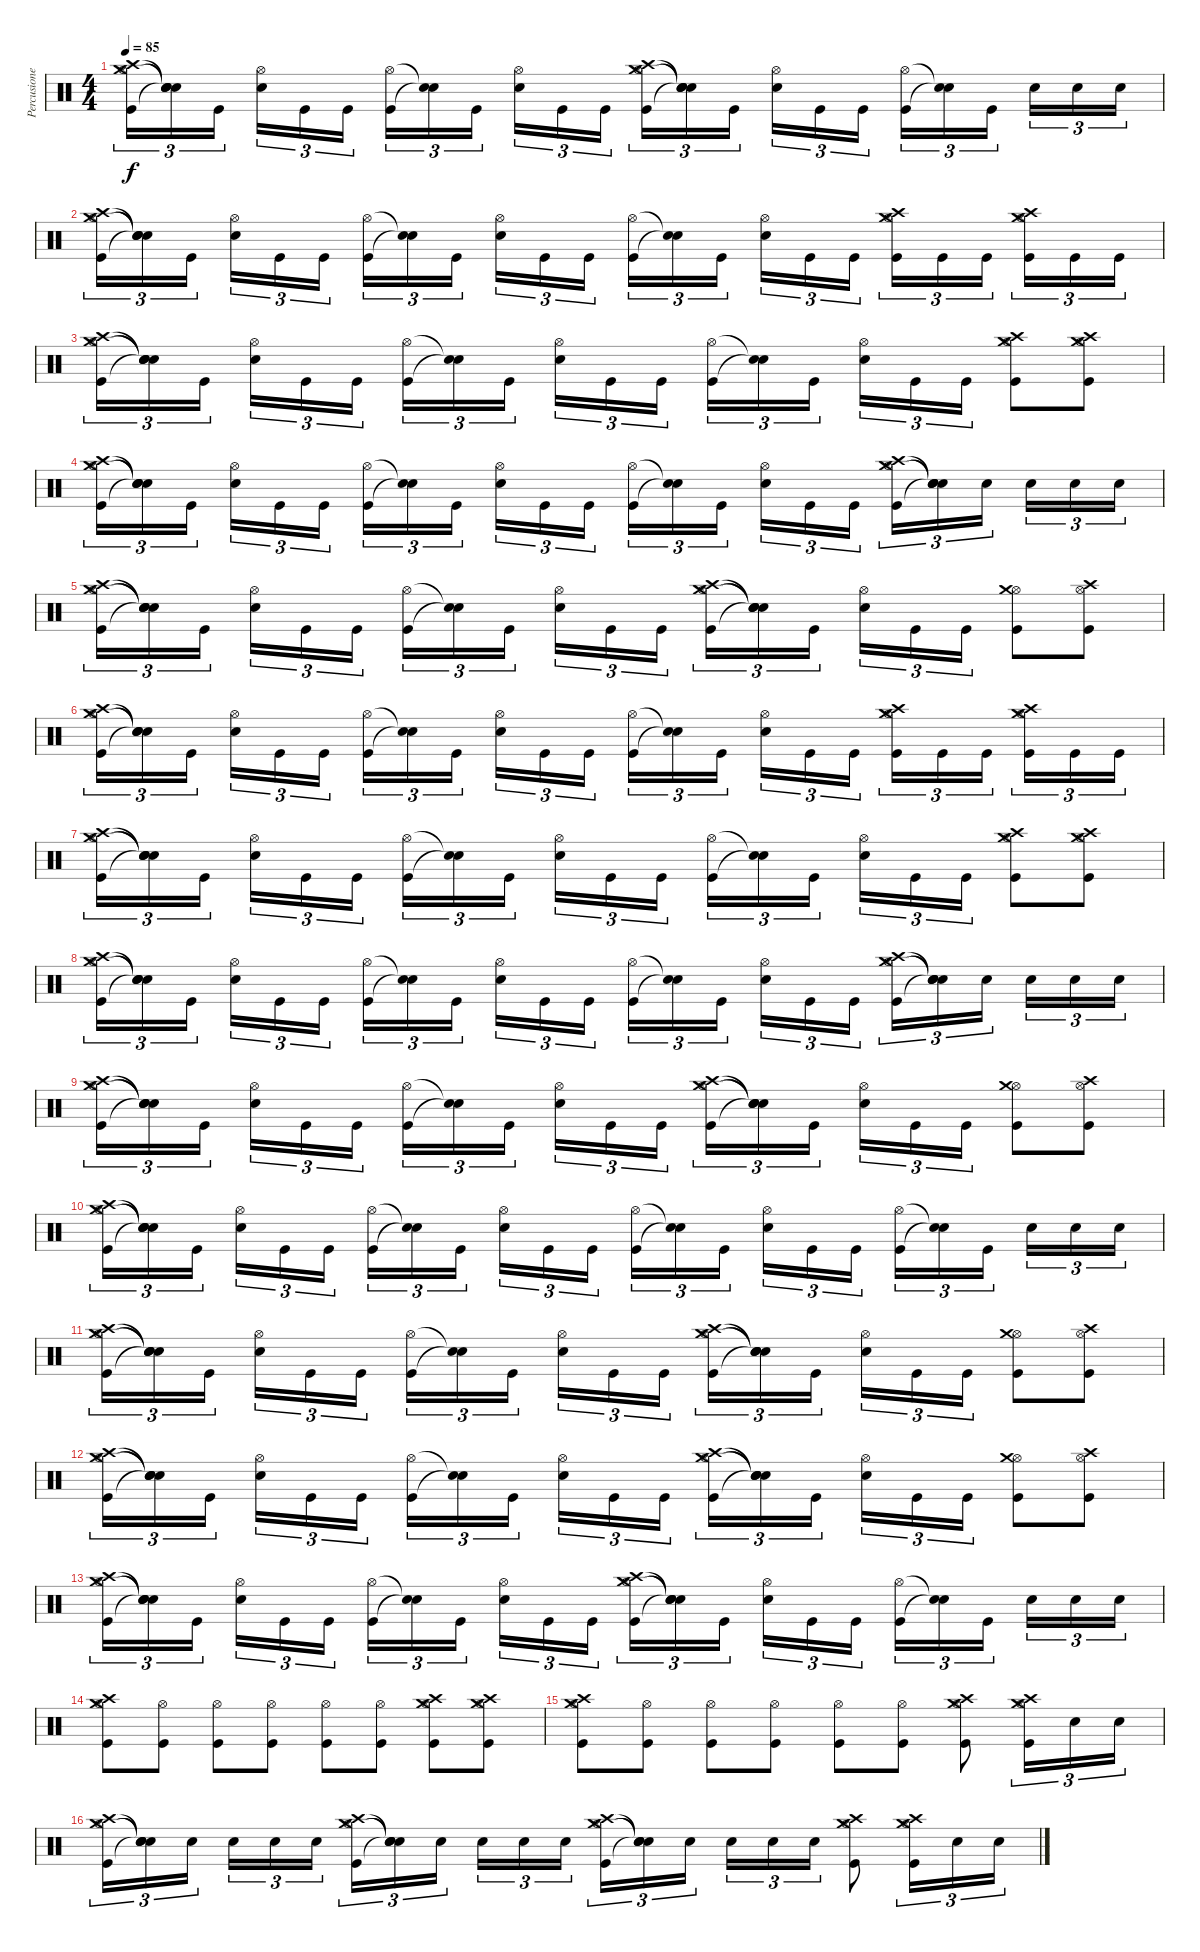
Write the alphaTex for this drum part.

\track ("Percusiones" "Percusione") {instrument percussion}
\staff {score}
\articulation defaults
\ts (4 4)
\tempo 85
\clef neutral
\ks c
("Hi-Hat (open)" "Crash high (hit)" "Crash medium (hit)" "Kick (hit)").16{tu (3 2) dy f} ("Snare (hit)"{t} "Snare (hit)"{t} "Snare (hit)"{t} "Snare (hit)"{t}).16{tu (3 2)} "Kick (hit)".16{tu (3 2)} ("Hi-Hat (open)" "Electric Snare (hit)").16{tu (3 2)} "Kick (hit)".16{tu (3 2)} "Kick (hit)".16{tu (3 2)} ("Hi-Hat (open)" "Kick (hit)").16{tu (3 2)} ("Snare (hit)"{t} "Snare (hit)"{t}).16{tu (3 2)} "Kick (hit)".16{tu (3 2)} ("Hi-Hat (open)" "Electric Snare (hit)").16{tu (3 2)} "Kick (hit)".16{tu (3 2)} "Kick (hit)".16{tu (3 2)} ("Hi-Hat (open)" "Crash high (hit)" "Crash medium (hit)" "Kick (hit)").16{tu (3 2)} ("Snare (hit)"{t} "Snare (hit)"{t} "Snare (hit)"{t} "Snare (hit)"{t}).16{tu (3 2)} "Kick (hit)".16{tu (3 2)} ("Hi-Hat (open)" "Electric Snare (hit)").16{tu (3 2)} "Kick (hit)".16{tu (3 2)} "Kick (hit)".16{tu (3 2)} ("Hi-Hat (open)" "Kick (hit)").16{tu (3 2)} ("Snare (hit)"{t} "Snare (hit)"{t}).16{tu (3 2)} "Kick (hit)".16{tu (3 2)} "Electric Snare (hit)".16{tu (3 2)} "Electric Snare (hit)".16{tu (3 2)} "Electric Snare (hit)".16{tu (3 2)} |
("Hi-Hat (open)" "Crash high (hit)" "Crash medium (hit)" "Kick (hit)").16{tu (3 2)} ("Snare (hit)"{t} "Snare (hit)"{t} "Snare (hit)"{t} "Snare (hit)"{t}).16{tu (3 2)} "Kick (hit)".16{tu (3 2)} ("Hi-Hat (open)" "Electric Snare (hit)").16{tu (3 2)} "Kick (hit)".16{tu (3 2)} "Kick (hit)".16{tu (3 2)} ("Hi-Hat (open)" "Kick (hit)").16{tu (3 2)} ("Snare (hit)"{t} "Snare (hit)"{t}).16{tu (3 2)} "Kick (hit)".16{tu (3 2)} ("Hi-Hat (open)" "Electric Snare (hit)").16{tu (3 2)} "Kick (hit)".16{tu (3 2)} "Kick (hit)".16{tu (3 2)} ("Hi-Hat (open)" "Kick (hit)").16{tu (3 2)} ("Snare (hit)"{t} "Snare (hit)"{t}).16{tu (3 2)} "Kick (hit)".16{tu (3 2)} ("Hi-Hat (open)" "Electric Snare (hit)").16{tu (3 2)} "Kick (hit)".16{tu (3 2)} "Kick (hit)".16{tu (3 2)} ("Hi-Hat (open)" "Crash medium (hit)" "Crash high (hit)" "Kick (hit)").16{tu (3 2)} "Kick (hit)".16{tu (3 2)} "Kick (hit)".16{tu (3 2)} ("Hi-Hat (open)" "Crash high (hit)" "Crash medium (hit)" "Kick (hit)").16{tu (3 2)} "Kick (hit)".16{tu (3 2)} "Kick (hit)".16{tu (3 2)} |
("Hi-Hat (open)" "Crash high (hit)" "Crash medium (hit)" "Kick (hit)").16{tu (3 2)} ("Snare (hit)"{t} "Snare (hit)"{t} "Snare (hit)"{t} "Snare (hit)"{t}).16{tu (3 2)} "Kick (hit)".16{tu (3 2)} ("Hi-Hat (open)" "Electric Snare (hit)").16{tu (3 2)} "Kick (hit)".16{tu (3 2)} "Kick (hit)".16{tu (3 2)} ("Hi-Hat (open)" "Kick (hit)").16{tu (3 2)} ("Snare (hit)"{t} "Snare (hit)"{t}).16{tu (3 2)} "Kick (hit)".16{tu (3 2)} ("Hi-Hat (open)" "Electric Snare (hit)").16{tu (3 2)} "Kick (hit)".16{tu (3 2)} "Kick (hit)".16{tu (3 2)} ("Hi-Hat (open)" "Kick (hit)").16{tu (3 2)} ("Snare (hit)"{t} "Snare (hit)"{t}).16{tu (3 2)} "Kick (hit)".16{tu (3 2)} ("Hi-Hat (open)" "Electric Snare (hit)").16{tu (3 2)} "Kick (hit)".16{tu (3 2)} "Kick (hit)".16{tu (3 2)} ("Hi-Hat (open)" "Crash medium (hit)" "Crash high (hit)" "Kick (hit)").8 ("Hi-Hat (open)" "Crash high (hit)" "Crash medium (hit)" "Kick (hit)").8 |
("Hi-Hat (open)" "Crash high (hit)" "Crash medium (hit)" "Kick (hit)").16{tu (3 2)} ("Snare (hit)"{t} "Snare (hit)"{t} "Snare (hit)"{t} "Snare (hit)"{t}).16{tu (3 2)} "Kick (hit)".16{tu (3 2)} ("Hi-Hat (open)" "Electric Snare (hit)").16{tu (3 2)} "Kick (hit)".16{tu (3 2)} "Kick (hit)".16{tu (3 2)} ("Hi-Hat (open)" "Kick (hit)").16{tu (3 2)} ("Snare (hit)"{t} "Snare (hit)"{t}).16{tu (3 2)} "Kick (hit)".16{tu (3 2)} ("Hi-Hat (open)" "Electric Snare (hit)").16{tu (3 2)} "Kick (hit)".16{tu (3 2)} "Kick (hit)".16{tu (3 2)} ("Hi-Hat (open)" "Kick (hit)").16{tu (3 2)} ("Snare (hit)"{t} "Snare (hit)"{t}).16{tu (3 2)} "Kick (hit)".16{tu (3 2)} ("Hi-Hat (open)" "Electric Snare (hit)").16{tu (3 2)} "Kick (hit)".16{tu (3 2)} "Kick (hit)".16{tu (3 2)} ("Hi-Hat (open)" "Crash medium (hit)" "Crash high (hit)" "Kick (hit)").16{tu (3 2)} ("Snare (hit)"{t} "Snare (hit)"{t} "Snare (hit)"{t} "Snare (hit)"{t}).16{tu (3 2)} "Electric Snare (hit)".16{tu (3 2)} "Electric Snare (hit)".16{tu (3 2)} "Electric Snare (hit)".16{tu (3 2)} "Electric Snare (hit)".16{tu (3 2)} |
("Hi-Hat (open)" "Crash high (hit)" "Crash medium (hit)" "Kick (hit)").16{tu (3 2)} ("Snare (hit)"{t} "Snare (hit)"{t} "Snare (hit)"{t} "Snare (hit)"{t}).16{tu (3 2)} "Kick (hit)".16{tu (3 2)} ("Hi-Hat (open)" "Electric Snare (hit)").16{tu (3 2)} "Kick (hit)".16{tu (3 2)} "Kick (hit)".16{tu (3 2)} ("Hi-Hat (open)" "Kick (hit)").16{tu (3 2)} ("Snare (hit)"{t} "Snare (hit)"{t}).16{tu (3 2)} "Kick (hit)".16{tu (3 2)} ("Hi-Hat (open)" "Electric Snare (hit)").16{tu (3 2)} "Kick (hit)".16{tu (3 2)} "Kick (hit)".16{tu (3 2)} ("Hi-Hat (open)" "Crash high (hit)" "Crash medium (hit)" "Kick (hit)").16{tu (3 2)} ("Snare (hit)"{t} "Snare (hit)"{t} "Snare (hit)"{t} "Snare (hit)"{t}).16{tu (3 2)} "Kick (hit)".16{tu (3 2)} ("Hi-Hat (open)" "Electric Snare (hit)").16{tu (3 2)} "Kick (hit)".16{tu (3 2)} "Kick (hit)".16{tu (3 2)} ("Hi-Hat (open)" "Crash medium (hit)" "Kick (hit)").8 ("Hi-Hat (open)" "Crash high (hit)" "Kick (hit)").8 |
("Hi-Hat (open)" "Crash high (hit)" "Crash medium (hit)" "Kick (hit)").16{tu (3 2)} ("Snare (hit)"{t} "Snare (hit)"{t} "Snare (hit)"{t} "Snare (hit)"{t}).16{tu (3 2)} "Kick (hit)".16{tu (3 2)} ("Hi-Hat (open)" "Electric Snare (hit)").16{tu (3 2)} "Kick (hit)".16{tu (3 2)} "Kick (hit)".16{tu (3 2)} ("Hi-Hat (open)" "Kick (hit)").16{tu (3 2)} ("Snare (hit)"{t} "Snare (hit)"{t}).16{tu (3 2)} "Kick (hit)".16{tu (3 2)} ("Hi-Hat (open)" "Electric Snare (hit)").16{tu (3 2)} "Kick (hit)".16{tu (3 2)} "Kick (hit)".16{tu (3 2)} ("Hi-Hat (open)" "Kick (hit)").16{tu (3 2)} ("Snare (hit)"{t} "Snare (hit)"{t}).16{tu (3 2)} "Kick (hit)".16{tu (3 2)} ("Hi-Hat (open)" "Electric Snare (hit)").16{tu (3 2)} "Kick (hit)".16{tu (3 2)} "Kick (hit)".16{tu (3 2)} ("Hi-Hat (open)" "Crash medium (hit)" "Crash high (hit)" "Kick (hit)").16{tu (3 2)} "Kick (hit)".16{tu (3 2)} "Kick (hit)".16{tu (3 2)} ("Hi-Hat (open)" "Crash high (hit)" "Crash medium (hit)" "Kick (hit)").16{tu (3 2)} "Kick (hit)".16{tu (3 2)} "Kick (hit)".16{tu (3 2)} |
("Hi-Hat (open)" "Crash high (hit)" "Crash medium (hit)" "Kick (hit)").16{tu (3 2)} ("Snare (hit)"{t} "Snare (hit)"{t} "Snare (hit)"{t} "Snare (hit)"{t}).16{tu (3 2)} "Kick (hit)".16{tu (3 2)} ("Hi-Hat (open)" "Electric Snare (hit)").16{tu (3 2)} "Kick (hit)".16{tu (3 2)} "Kick (hit)".16{tu (3 2)} ("Hi-Hat (open)" "Kick (hit)").16{tu (3 2)} ("Snare (hit)"{t} "Snare (hit)"{t}).16{tu (3 2)} "Kick (hit)".16{tu (3 2)} ("Hi-Hat (open)" "Electric Snare (hit)").16{tu (3 2)} "Kick (hit)".16{tu (3 2)} "Kick (hit)".16{tu (3 2)} ("Hi-Hat (open)" "Kick (hit)").16{tu (3 2)} ("Snare (hit)"{t} "Snare (hit)"{t}).16{tu (3 2)} "Kick (hit)".16{tu (3 2)} ("Hi-Hat (open)" "Electric Snare (hit)").16{tu (3 2)} "Kick (hit)".16{tu (3 2)} "Kick (hit)".16{tu (3 2)} ("Hi-Hat (open)" "Crash medium (hit)" "Crash high (hit)" "Kick (hit)").8 ("Hi-Hat (open)" "Crash high (hit)" "Crash medium (hit)" "Kick (hit)").8 |
("Hi-Hat (open)" "Crash high (hit)" "Crash medium (hit)" "Kick (hit)").16{tu (3 2)} ("Snare (hit)"{t} "Snare (hit)"{t} "Snare (hit)"{t} "Snare (hit)"{t}).16{tu (3 2)} "Kick (hit)".16{tu (3 2)} ("Hi-Hat (open)" "Electric Snare (hit)").16{tu (3 2)} "Kick (hit)".16{tu (3 2)} "Kick (hit)".16{tu (3 2)} ("Hi-Hat (open)" "Kick (hit)").16{tu (3 2)} ("Snare (hit)"{t} "Snare (hit)"{t}).16{tu (3 2)} "Kick (hit)".16{tu (3 2)} ("Hi-Hat (open)" "Electric Snare (hit)").16{tu (3 2)} "Kick (hit)".16{tu (3 2)} "Kick (hit)".16{tu (3 2)} ("Hi-Hat (open)" "Kick (hit)").16{tu (3 2)} ("Snare (hit)"{t} "Snare (hit)"{t}).16{tu (3 2)} "Kick (hit)".16{tu (3 2)} ("Hi-Hat (open)" "Electric Snare (hit)").16{tu (3 2)} "Kick (hit)".16{tu (3 2)} "Kick (hit)".16{tu (3 2)} ("Hi-Hat (open)" "Crash medium (hit)" "Crash high (hit)" "Kick (hit)").16{tu (3 2)} ("Snare (hit)"{t} "Snare (hit)"{t} "Snare (hit)"{t} "Snare (hit)"{t}).16{tu (3 2)} "Electric Snare (hit)".16{tu (3 2)} "Electric Snare (hit)".16{tu (3 2)} "Electric Snare (hit)".16{tu (3 2)} "Electric Snare (hit)".16{tu (3 2)} |
("Hi-Hat (open)" "Crash high (hit)" "Crash medium (hit)" "Kick (hit)").16{tu (3 2)} ("Snare (hit)"{t} "Snare (hit)"{t} "Snare (hit)"{t} "Snare (hit)"{t}).16{tu (3 2)} "Kick (hit)".16{tu (3 2)} ("Hi-Hat (open)" "Electric Snare (hit)").16{tu (3 2)} "Kick (hit)".16{tu (3 2)} "Kick (hit)".16{tu (3 2)} ("Hi-Hat (open)" "Kick (hit)").16{tu (3 2)} ("Snare (hit)"{t} "Snare (hit)"{t}).16{tu (3 2)} "Kick (hit)".16{tu (3 2)} ("Hi-Hat (open)" "Electric Snare (hit)").16{tu (3 2)} "Kick (hit)".16{tu (3 2)} "Kick (hit)".16{tu (3 2)} ("Hi-Hat (open)" "Crash high (hit)" "Crash medium (hit)" "Kick (hit)").16{tu (3 2)} ("Snare (hit)"{t} "Snare (hit)"{t} "Snare (hit)"{t} "Snare (hit)"{t}).16{tu (3 2)} "Kick (hit)".16{tu (3 2)} ("Hi-Hat (open)" "Electric Snare (hit)").16{tu (3 2)} "Kick (hit)".16{tu (3 2)} "Kick (hit)".16{tu (3 2)} ("Hi-Hat (open)" "Crash medium (hit)" "Kick (hit)").8 ("Hi-Hat (open)" "Crash high (hit)" "Kick (hit)").8 |
("Hi-Hat (open)" "Crash high (hit)" "Crash medium (hit)" "Kick (hit)").16{tu (3 2)} ("Snare (hit)"{t} "Snare (hit)"{t} "Snare (hit)"{t} "Snare (hit)"{t}).16{tu (3 2)} "Kick (hit)".16{tu (3 2)} ("Hi-Hat (open)" "Electric Snare (hit)").16{tu (3 2)} "Kick (hit)".16{tu (3 2)} "Kick (hit)".16{tu (3 2)} ("Hi-Hat (open)" "Kick (hit)").16{tu (3 2)} ("Snare (hit)"{t} "Snare (hit)"{t}).16{tu (3 2)} "Kick (hit)".16{tu (3 2)} ("Hi-Hat (open)" "Electric Snare (hit)").16{tu (3 2)} "Kick (hit)".16{tu (3 2)} "Kick (hit)".16{tu (3 2)} ("Hi-Hat (open)" "Kick (hit)").16{tu (3 2)} ("Snare (hit)"{t} "Snare (hit)"{t}).16{tu (3 2)} "Kick (hit)".16{tu (3 2)} ("Hi-Hat (open)" "Electric Snare (hit)").16{tu (3 2)} "Kick (hit)".16{tu (3 2)} "Kick (hit)".16{tu (3 2)} ("Hi-Hat (open)" "Kick (hit)").16{tu (3 2)} ("Snare (hit)"{t} "Snare (hit)"{t}).16{tu (3 2)} "Kick (hit)".16{tu (3 2)} "Electric Snare (hit)".16{tu (3 2)} "Electric Snare (hit)".16{tu (3 2)} "Electric Snare (hit)".16{tu (3 2)} |
("Hi-Hat (open)" "Crash high (hit)" "Crash medium (hit)" "Kick (hit)").16{tu (3 2)} ("Snare (hit)"{t} "Snare (hit)"{t} "Snare (hit)"{t} "Snare (hit)"{t}).16{tu (3 2)} "Kick (hit)".16{tu (3 2)} ("Hi-Hat (open)" "Electric Snare (hit)").16{tu (3 2)} "Kick (hit)".16{tu (3 2)} "Kick (hit)".16{tu (3 2)} ("Hi-Hat (open)" "Kick (hit)").16{tu (3 2)} ("Snare (hit)"{t} "Snare (hit)"{t}).16{tu (3 2)} "Kick (hit)".16{tu (3 2)} ("Hi-Hat (open)" "Electric Snare (hit)").16{tu (3 2)} "Kick (hit)".16{tu (3 2)} "Kick (hit)".16{tu (3 2)} ("Hi-Hat (open)" "Crash high (hit)" "Crash medium (hit)" "Kick (hit)").16{tu (3 2)} ("Snare (hit)"{t} "Snare (hit)"{t} "Snare (hit)"{t} "Snare (hit)"{t}).16{tu (3 2)} "Kick (hit)".16{tu (3 2)} ("Hi-Hat (open)" "Electric Snare (hit)").16{tu (3 2)} "Kick (hit)".16{tu (3 2)} "Kick (hit)".16{tu (3 2)} ("Hi-Hat (open)" "Crash medium (hit)" "Kick (hit)").8 ("Hi-Hat (open)" "Crash high (hit)" "Kick (hit)").8 |
("Hi-Hat (open)" "Crash high (hit)" "Crash medium (hit)" "Kick (hit)").16{tu (3 2)} ("Snare (hit)"{t} "Snare (hit)"{t} "Snare (hit)"{t} "Snare (hit)"{t}).16{tu (3 2)} "Kick (hit)".16{tu (3 2)} ("Hi-Hat (open)" "Electric Snare (hit)").16{tu (3 2)} "Kick (hit)".16{tu (3 2)} "Kick (hit)".16{tu (3 2)} ("Hi-Hat (open)" "Kick (hit)").16{tu (3 2)} ("Snare (hit)"{t} "Snare (hit)"{t}).16{tu (3 2)} "Kick (hit)".16{tu (3 2)} ("Hi-Hat (open)" "Electric Snare (hit)").16{tu (3 2)} "Kick (hit)".16{tu (3 2)} "Kick (hit)".16{tu (3 2)} ("Hi-Hat (open)" "Crash high (hit)" "Crash medium (hit)" "Kick (hit)").16{tu (3 2)} ("Snare (hit)"{t} "Snare (hit)"{t} "Snare (hit)"{t} "Snare (hit)"{t}).16{tu (3 2)} "Kick (hit)".16{tu (3 2)} ("Hi-Hat (open)" "Electric Snare (hit)").16{tu (3 2)} "Kick (hit)".16{tu (3 2)} "Kick (hit)".16{tu (3 2)} ("Hi-Hat (open)" "Crash medium (hit)" "Kick (hit)").8 ("Hi-Hat (open)" "Crash high (hit)" "Kick (hit)").8 |
("Hi-Hat (open)" "Crash high (hit)" "Crash medium (hit)" "Kick (hit)").16{tu (3 2)} ("Snare (hit)"{t} "Snare (hit)"{t} "Snare (hit)"{t} "Snare (hit)"{t}).16{tu (3 2)} "Kick (hit)".16{tu (3 2)} ("Hi-Hat (open)" "Electric Snare (hit)").16{tu (3 2)} "Kick (hit)".16{tu (3 2)} "Kick (hit)".16{tu (3 2)} ("Hi-Hat (open)" "Kick (hit)").16{tu (3 2)} ("Snare (hit)"{t} "Snare (hit)"{t}).16{tu (3 2)} "Kick (hit)".16{tu (3 2)} ("Hi-Hat (open)" "Electric Snare (hit)").16{tu (3 2)} "Kick (hit)".16{tu (3 2)} "Kick (hit)".16{tu (3 2)} ("Hi-Hat (open)" "Crash high (hit)" "Crash medium (hit)" "Kick (hit)").16{tu (3 2)} ("Snare (hit)"{t} "Snare (hit)"{t} "Snare (hit)"{t} "Snare (hit)"{t}).16{tu (3 2)} "Kick (hit)".16{tu (3 2)} ("Hi-Hat (open)" "Electric Snare (hit)").16{tu (3 2)} "Kick (hit)".16{tu (3 2)} "Kick (hit)".16{tu (3 2)} ("Hi-Hat (open)" "Kick (hit)").16{tu (3 2)} ("Snare (hit)"{t} "Snare (hit)"{t}).16{tu (3 2)} "Kick (hit)".16{tu (3 2)} "Electric Snare (hit)".16{tu (3 2)} "Electric Snare (hit)".16{tu (3 2)} "Electric Snare (hit)".16{tu (3 2)} |
("Hi-Hat (open)" "Crash high (hit)" "Crash medium (hit)" "Kick (hit)").8 ("Hi-Hat (open)" "Kick (hit)").8 ("Hi-Hat (open)" "Kick (hit)").8 ("Hi-Hat (open)" "Kick (hit)").8 ("Hi-Hat (open)" "Kick (hit)").8 ("Hi-Hat (open)" "Kick (hit)").8 ("Hi-Hat (open)" "Crash high (hit)" "Crash medium (hit)" "Kick (hit)").8 ("Hi-Hat (open)" "Crash high (hit)" "Crash medium (hit)" "Kick (hit)").8 |
("Hi-Hat (open)" "Crash high (hit)" "Crash medium (hit)" "Kick (hit)").8 ("Hi-Hat (open)" "Kick (hit)").8 ("Hi-Hat (open)" "Kick (hit)").8 ("Hi-Hat (open)" "Kick (hit)").8 ("Hi-Hat (open)" "Kick (hit)").8 ("Hi-Hat (open)" "Kick (hit)").8 ("Hi-Hat (open)" "Crash high (hit)" "Crash medium (hit)" "Kick (hit)").8 ("Hi-Hat (open)" "Crash high (hit)" "Crash medium (hit)" "Kick (hit)").16{tu (3 2)} "Electric Snare (hit)".16{tu (3 2)} "Electric Snare (hit)".16{tu (3 2)} |
("Hi-Hat (open)" "Crash high (hit)" "Crash medium (hit)" "Kick (hit)").16{tu (3 2)} ("Snare (hit)"{t} "Snare (hit)"{t} "Snare (hit)"{t} "Snare (hit)"{t}).16{tu (3 2)} "Electric Snare (hit)".16{tu (3 2)} "Electric Snare (hit)".16{tu (3 2)} "Electric Snare (hit)".16{tu (3 2)} "Electric Snare (hit)".16{tu (3 2)} ("Hi-Hat (open)" "Crash high (hit)" "Crash medium (hit)" "Kick (hit)").16{tu (3 2)} ("Snare (hit)"{t} "Snare (hit)"{t} "Snare (hit)"{t} "Snare (hit)"{t}).16{tu (3 2)} "Electric Snare (hit)".16{tu (3 2)} "Electric Snare (hit)".16{tu (3 2)} "Electric Snare (hit)".16{tu (3 2)} "Electric Snare (hit)".16{tu (3 2)} ("Hi-Hat (open)" "Crash high (hit)" "Crash medium (hit)" "Kick (hit)").16{tu (3 2)} ("Snare (hit)"{t} "Snare (hit)"{t} "Snare (hit)"{t} "Snare (hit)"{t}).16{tu (3 2)} "Electric Snare (hit)".16{tu (3 2)} "Electric Snare (hit)".16{tu (3 2)} "Electric Snare (hit)".16{tu (3 2)} "Electric Snare (hit)".16{tu (3 2)} ("Hi-Hat (open)" "Crash high (hit)" "Crash medium (hit)" "Kick (hit)").8 ("Hi-Hat (open)" "Crash high (hit)" "Crash medium (hit)" "Kick (hit)").16{tu (3 2)} "Electric Snare (hit)".16{tu (3 2)} "Electric Snare (hit)".16{tu (3 2)}
